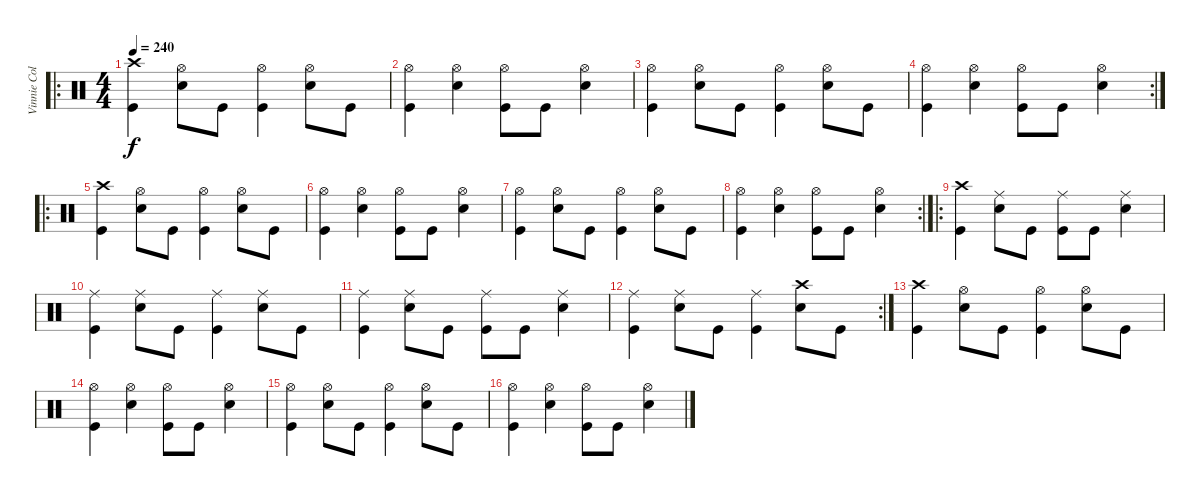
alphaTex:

\track ("Vinnie Colaiuta" "Vinnie Col") {instrument percussion}
\staff {score}
\articulation defaults
\ro
\ts (4 4)
\tempo 240
\clef neutral
\ks c
("Crash high (hit)" "Kick (hit)").4{dy f} ("Hi-Hat (open)" "Snare (hit) 2").8 "Kick (hit)".8 ("Hi-Hat (open)" "Kick (hit)").4 ("Hi-Hat (open)" "Snare (hit) 2").8 "Kick (hit)".8 |
("Hi-Hat (open)" "Kick (hit)").4 ("Hi-Hat (open)" "Snare (hit) 2").4 ("Hi-Hat (open)" "Kick (hit)").8 "Kick (hit)".8 ("Hi-Hat (open)" "Snare (hit) 2").4 |
("Hi-Hat (open)" "Kick (hit)").4 ("Hi-Hat (open)" "Snare (hit) 2").8 "Kick (hit)".8 ("Hi-Hat (open)" "Kick (hit)").4 ("Hi-Hat (open)" "Snare (hit) 2").8 "Kick (hit)".8 |
\rc 2
("Hi-Hat (open)" "Kick (hit)").4 ("Hi-Hat (open)" "Snare (hit) 2").4 ("Hi-Hat (open)" "Kick (hit)").8 "Kick (hit)".8 ("Hi-Hat (open)" "Snare (hit) 2").4 |
\ro
("Crash high (hit)" "Kick (hit)").4 ("Hi-Hat (open)" "Snare (hit) 2").8 "Kick (hit)".8 ("Hi-Hat (open)" "Kick (hit)").4 ("Hi-Hat (open)" "Snare (hit) 2").8 "Kick (hit)".8 |
("Hi-Hat (open)" "Kick (hit)").4 ("Hi-Hat (open)" "Snare (hit) 2").4 ("Hi-Hat (open)" "Kick (hit)").8 "Kick (hit)".8 ("Hi-Hat (open)" "Snare (hit) 2").4 |
("Hi-Hat (open)" "Kick (hit)").4 ("Hi-Hat (open)" "Snare (hit) 2").8 "Kick (hit)".8 ("Hi-Hat (open)" "Kick (hit)").4 ("Hi-Hat (open)" "Snare (hit) 2").8 "Kick (hit)".8 |
\rc 2
("Hi-Hat (open)" "Kick (hit)").4 ("Hi-Hat (open)" "Snare (hit) 2").4 ("Hi-Hat (open)" "Kick (hit)").8 "Kick (hit)".8 ("Hi-Hat (open)" "Snare (hit) 2").4 |
\ro
("Crash high (hit)" "Kick (hit)").4 ("Ride (middle)" "Snare (hit) 2").8 "Kick (hit)".8 ("Ride (middle)" "Kick (hit)").8 "Kick (hit)".8 ("Ride (middle)" "Snare (hit) 2").4 |
("Ride (middle)" "Kick (hit)").4 ("Ride (middle)" "Snare (hit) 2").8 "Kick (hit)".8 ("Ride (middle)" "Kick (hit)").4 ("Ride (middle)" "Snare (hit) 2").8 "Kick (hit)".8 |
("Ride (middle)" "Kick (hit)").4 ("Ride (middle)" "Snare (hit) 2").8 "Kick (hit)".8 ("Ride (middle)" "Kick (hit)").8 "Kick (hit)".8 ("Ride (middle)" "Snare (hit) 2").4 |
\rc 2
("Ride (middle)" "Kick (hit)").4 ("Ride (middle)" "Snare (hit) 2").8 "Kick (hit)".8 ("Ride (middle)" "Kick (hit)").4 ("Snare (hit) 2" "Crash high (hit)").8 "Kick (hit)".8 |
("Crash high (hit)" "Kick (hit)").4 ("Hi-Hat (open)" "Snare (hit) 2").8 "Kick (hit)".8 ("Hi-Hat (open)" "Kick (hit)").4 ("Hi-Hat (open)" "Snare (hit) 2").8 "Kick (hit)".8 |
("Hi-Hat (open)" "Kick (hit)").4 ("Hi-Hat (open)" "Snare (hit) 2").4 ("Hi-Hat (open)" "Kick (hit)").8 "Kick (hit)".8 ("Hi-Hat (open)" "Snare (hit) 2").4 |
("Hi-Hat (open)" "Kick (hit)").4 ("Hi-Hat (open)" "Snare (hit) 2").8 "Kick (hit)".8 ("Hi-Hat (open)" "Kick (hit)").4 ("Hi-Hat (open)" "Snare (hit) 2").8 "Kick (hit)".8 |
("Hi-Hat (open)" "Kick (hit)").4 ("Hi-Hat (open)" "Snare (hit) 2").4 ("Hi-Hat (open)" "Kick (hit)").8 "Kick (hit)".8 ("Hi-Hat (open)" "Snare (hit) 2").4
